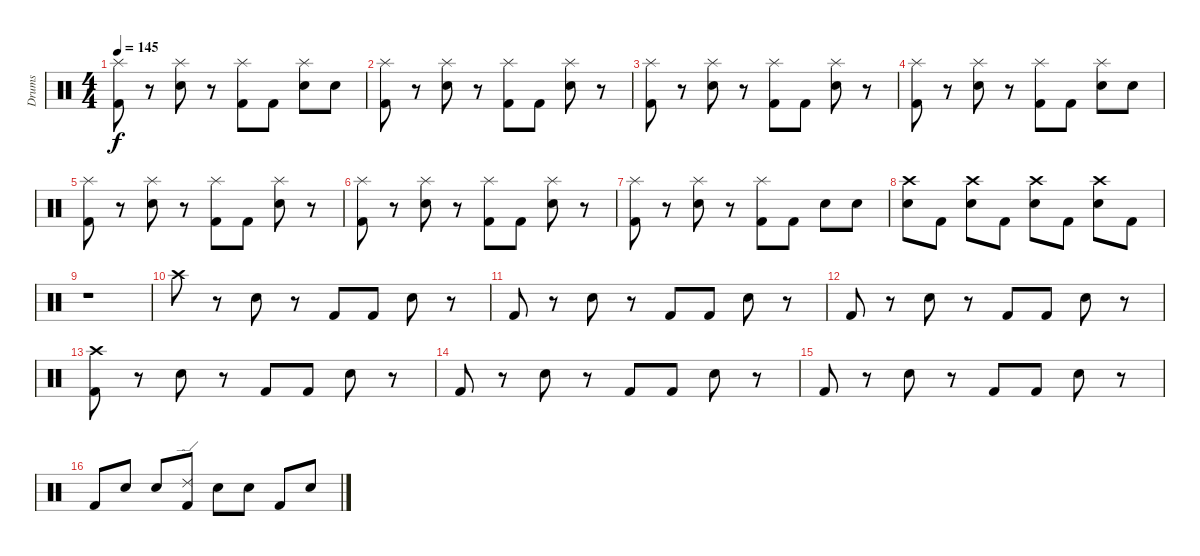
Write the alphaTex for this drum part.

\track ("Drums" "Drums") {instrument percussion}
\staff {score}
\articulation defaults
\ts (4 4)
\tempo 145
\clef neutral
\ks c
("Splash (hit)" "Kick (hit) 2").8{dy f} r.8 ("Splash (hit)" "Electric Snare (hit)").8 r.8 ("Splash (hit)" "Kick (hit) 2").8 "Kick (hit) 2".8 ("Splash (hit)" "Electric Snare (hit)").8 "Electric Snare (hit)".8 |
("Splash (hit)" "Kick (hit) 2").8 r.8 ("Splash (hit)" "Electric Snare (hit)").8 r.8 ("Splash (hit)" "Kick (hit) 2").8 "Kick (hit) 2".8 ("Splash (hit)" "Electric Snare (hit)").8 r.8 |
("Splash (hit)" "Kick (hit) 2").8 r.8 ("Splash (hit)" "Electric Snare (hit)").8 r.8 ("Splash (hit)" "Kick (hit) 2").8 "Kick (hit) 2".8 ("Splash (hit)" "Electric Snare (hit)").8 r.8 |
("Splash (hit)" "Kick (hit) 2").8 r.8 ("Splash (hit)" "Electric Snare (hit)").8 r.8 ("Splash (hit)" "Kick (hit) 2").8 "Kick (hit) 2".8 ("Splash (hit)" "Electric Snare (hit)").8 "Electric Snare (hit)".8 |
("Splash (hit)" "Kick (hit) 2").8 r.8 ("Splash (hit)" "Electric Snare (hit)").8 r.8 ("Splash (hit)" "Kick (hit) 2").8 "Kick (hit) 2".8 ("Splash (hit)" "Electric Snare (hit)").8 r.8 |
("Splash (hit)" "Kick (hit) 2").8 r.8 ("Splash (hit)" "Electric Snare (hit)").8 r.8 ("Splash (hit)" "Kick (hit) 2").8 "Kick (hit) 2".8 ("Splash (hit)" "Electric Snare (hit)").8 r.8 |
("Splash (hit)" "Kick (hit) 2").8 r.8 ("Splash (hit)" "Electric Snare (hit)").8 r.8 ("Splash (hit)" "Kick (hit) 2").8 "Kick (hit) 2".8 "Electric Snare (hit)".8 "Electric Snare (hit)".8 |
("Crash high (hit)" "Electric Snare (hit)").8 "Kick (hit) 2".8 ("Crash high (hit)" "Electric Snare (hit)").8 "Kick (hit) 2".8 ("Crash high (hit)" "Electric Snare (hit)").8 "Kick (hit) 2".8 ("Crash high (hit)" "Electric Snare (hit)").8 "Kick (hit) 2".8 |
r.1 |
"Crash high (hit)".8 r.8 "Electric Snare (hit)".8 r.8 "Kick (hit) 2".8 "Kick (hit) 2".8 "Electric Snare (hit)".8 r.8 |
"Kick (hit) 2".8 r.8 "Electric Snare (hit)".8 r.8 "Kick (hit) 2".8 "Kick (hit) 2".8 "Electric Snare (hit)".8 r.8 |
"Kick (hit) 2".8 r.8 "Electric Snare (hit)".8 r.8 "Kick (hit) 2".8 "Kick (hit) 2".8 "Electric Snare (hit)".8 r.8 |
("Crash high (hit)" "Kick (hit) 2").8 r.8 "Electric Snare (hit)".8 r.8 "Kick (hit) 2".8 "Kick (hit) 2".8 "Electric Snare (hit)".8 r.8 |
"Kick (hit) 2".8 r.8 "Electric Snare (hit)".8 r.8 "Kick (hit) 2".8 "Kick (hit) 2".8 "Electric Snare (hit)".8 r.8 |
"Kick (hit) 2".8 r.8 "Electric Snare (hit)".8 r.8 "Kick (hit) 2".8 "Kick (hit) 2".8 "Electric Snare (hit)".8 r.8 |
"Kick (hit) 2".8 "Electric Snare (hit)".8 "Electric Snare (hit)".8 ("Ride (edge) 2" "Kick (hit) 2").8 "Electric Snare (hit)".8 "Electric Snare (hit)".8 "Kick (hit) 2".8 "Electric Snare (hit)".8
